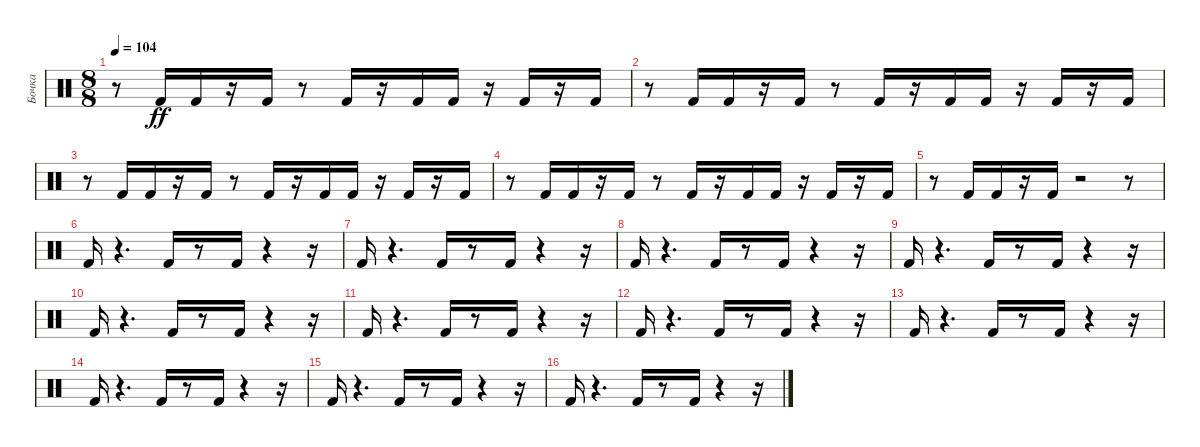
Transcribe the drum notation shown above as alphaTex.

\track ("Бочка" "Бочка") {instrument percussion}
\staff {score}
\articulation defaults
\ts (8 8)
\tempo 104
\clef neutral
\ks c
r.8{dy ff} "Kick (hit) 2".16 "Kick (hit) 2".16 r.16 "Kick (hit) 2".16 r.8 "Kick (hit) 2".16 r.16 "Kick (hit) 2".16 "Kick (hit) 2".16 r.16 "Kick (hit) 2".16 r.16 "Kick (hit) 2".16 |
r.8 "Kick (hit) 2".16 "Kick (hit) 2".16 r.16 "Kick (hit) 2".16 r.8 "Kick (hit) 2".16 r.16 "Kick (hit) 2".16 "Kick (hit) 2".16 r.16 "Kick (hit) 2".16 r.16 "Kick (hit) 2".16 |
r.8 "Kick (hit) 2".16 "Kick (hit) 2".16 r.16 "Kick (hit) 2".16 r.8 "Kick (hit) 2".16 r.16 "Kick (hit) 2".16 "Kick (hit) 2".16 r.16 "Kick (hit) 2".16 r.16 "Kick (hit) 2".16 |
r.8 "Kick (hit) 2".16 "Kick (hit) 2".16 r.16 "Kick (hit) 2".16 r.8 "Kick (hit) 2".16 r.16 "Kick (hit) 2".16 "Kick (hit) 2".16 r.16 "Kick (hit) 2".16 r.16 "Kick (hit) 2".16 |
r.8 "Kick (hit) 2".16 "Kick (hit) 2".16 r.16 "Kick (hit) 2".16 r.2 r.8 |
"Kick (hit) 2".16 r.4{d} "Kick (hit) 2".16 r.8 "Kick (hit) 2".16 r.4 r.16 |
"Kick (hit) 2".16 r.4{d} "Kick (hit) 2".16 r.8 "Kick (hit) 2".16 r.4 r.16 |
"Kick (hit) 2".16 r.4{d} "Kick (hit) 2".16 r.8 "Kick (hit) 2".16 r.4 r.16 |
"Kick (hit) 2".16 r.4{d} "Kick (hit) 2".16 r.8 "Kick (hit) 2".16 r.4 r.16 |
"Kick (hit) 2".16 r.4{d} "Kick (hit) 2".16 r.8 "Kick (hit) 2".16 r.4 r.16 |
"Kick (hit) 2".16 r.4{d} "Kick (hit) 2".16 r.8 "Kick (hit) 2".16 r.4 r.16 |
"Kick (hit) 2".16 r.4{d} "Kick (hit) 2".16 r.8 "Kick (hit) 2".16 r.4 r.16 |
"Kick (hit) 2".16 r.4{d} "Kick (hit) 2".16 r.8 "Kick (hit) 2".16 r.4 r.16 |
"Kick (hit) 2".16 r.4{d} "Kick (hit) 2".16 r.8 "Kick (hit) 2".16 r.4 r.16 |
"Kick (hit) 2".16 r.4{d} "Kick (hit) 2".16 r.8 "Kick (hit) 2".16 r.4 r.16 |
"Kick (hit) 2".16 r.4{d} "Kick (hit) 2".16 r.8 "Kick (hit) 2".16 r.4 r.16
